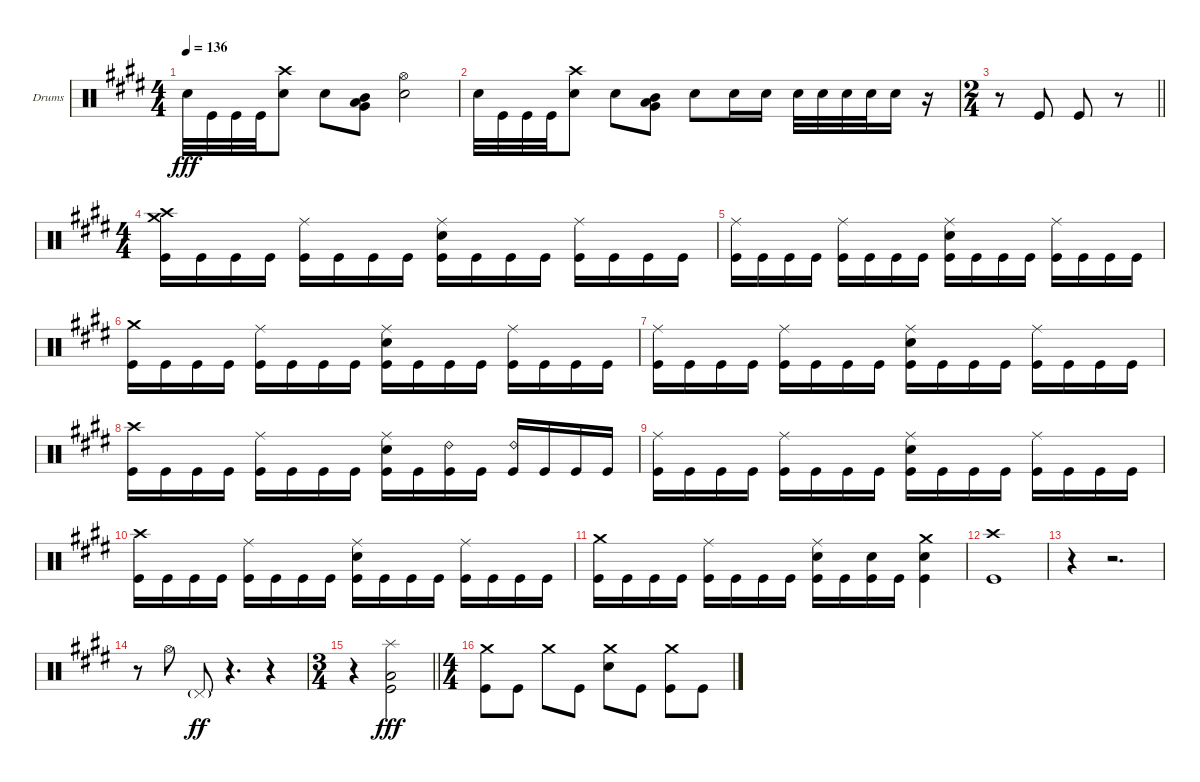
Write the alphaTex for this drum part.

\bracketExtendMode groupsimilarinstruments
\firstSystemTrackNameOrientation horizontal
\otherSystemsTrackNameOrientation horizontal
\track ("Drumkit" "Drums") {instrument percussion}
\staff {score}
\articulation defaults
\ts (4 4)
\tempo 136
\clef neutral
\ks e "Snare (hit) 2".32{dy fff} "Kick (hit)".32 "Kick (hit)".32 "Kick (hit)".32
("Crash high (hit)" "Snare (hit) 2").8 "Snare (hit) 2".8 ("Mid Tom (hit)" "Very Low Tom (hit)" "Low Tom (hit)").8 ("Hi-Hat (open)" "Snare (hit) 2").2 |
"Snare (hit) 2".32 "Kick (hit)".32 "Kick (hit)".32 "Kick (hit)".32 ("Crash high (hit)" "Snare (hit) 2").8 "Snare (hit) 2".8 ("Very Low Tom (hit)" "Mid Tom (hit)" "Low Tom (hit)").8 "Snare (hit) 2".8 "Snare (hit) 2".16 "Snare (hit) 2".16 "Snare (hit) 2".32 "Snare (hit) 2".32 "Snare (hit) 2".32 "Snare (hit) 2".32 "Snare (hit) 2".16 r.16 |
\ts (2 4)
\beaming (8 2 2)
\barLineRight lightlight
r.8 "Kick (hit)".8 "Kick (hit)".8 r.8 |
\ts (4 4)
\beaming (8 2 2 2 2)
("Crash high (hit)" "Crash medium (hit)" "Kick (hit)").16 "Kick (hit)".16 "Kick (hit)".16 "Kick (hit)".16 ("Ride (middle)" "Kick (hit)").16 "Kick (hit)".16 "Kick (hit)".16 "Kick (hit)".16 ("Ride (middle)" "Snare (hit) 2" "Kick (hit)").16 "Kick (hit)".16 "Kick (hit)".16 "Kick (hit)".16 ("Ride (middle)" "Kick (hit)").16 "Kick (hit)".16 "Kick (hit)".16 "Kick (hit)".16 |
("Ride (middle)" "Kick (hit)").16 "Kick (hit)".16 "Kick (hit)".16 "Kick (hit)".16 ("Ride (middle)" "Kick (hit)").16 "Kick (hit)".16 "Kick (hit)".16 "Kick (hit)".16 ("Ride (middle)" "Snare (hit) 2" "Kick (hit)").16 "Kick (hit)".16 "Kick (hit)".16 "Kick (hit)".16 ("Ride (middle)" "Kick (hit)").16 "Kick (hit)".16 "Kick (hit)".16 "Kick (hit)".16 |
("Crash medium (hit)" "Kick (hit)").16 "Kick (hit)".16 "Kick (hit)".16 "Kick (hit)".16 ("Ride (middle)" "Kick (hit)").16 "Kick (hit)".16 "Kick (hit)".16 "Kick (hit)".16 ("Ride (middle)" "Snare (hit) 2" "Kick (hit)").16 "Kick (hit)".16 "Kick (hit)".16 "Kick (hit)".16 ("Ride (middle)" "Kick (hit)").16 "Kick (hit)".16 "Kick (hit)".16 "Kick (hit)".16 |
("Ride (middle)" "Kick (hit)").16 "Kick (hit)".16 "Kick (hit)".16 "Kick (hit)".16 ("Ride (middle)" "Kick (hit)").16 "Kick (hit)".16 "Kick (hit)".16 "Kick (hit)".16 ("Ride (middle)" "Snare (hit) 2" "Kick (hit)").16 "Kick (hit)".16 "Kick (hit)".16 "Kick (hit)".16 ("Ride (middle)" "Kick (hit)").16 "Kick (hit)".16 "Kick (hit)".16 "Kick (hit)".16 |
("Crash high (hit)" "Kick (hit)").16 "Kick (hit)".16 "Kick (hit)".16 "Kick (hit)".16 ("Ride (middle)" "Kick (hit)").16 "Kick (hit)".16 "Kick (hit)".16 "Kick (hit)".16 ("Ride (middle)" "Snare (hit) 2" "Kick (hit)").16 "Kick (hit)".16 ("Ride (bell) 2" "Kick (hit)").16 "Kick (hit)".16 ("Ride (bell) 2" "Kick (hit)").16 "Kick (hit)".16 "Kick (hit)".16 "Kick (hit)".16 |
("Ride (middle)" "Kick (hit)").16 "Kick (hit)".16 "Kick (hit)".16 "Kick (hit)".16 ("Ride (middle)" "Kick (hit)").16 "Kick (hit)".16 "Kick (hit)".16 "Kick (hit)".16 ("Ride (middle)" "Snare (hit) 2" "Kick (hit)").16 "Kick (hit)".16 "Kick (hit)".16 "Kick (hit)".16 ("Ride (middle)" "Kick (hit)").16 "Kick (hit)".16 "Kick (hit)".16 "Kick (hit)".16 |
("Crash high (hit)" "Kick (hit)").16 "Kick (hit)".16 "Kick (hit)".16 "Kick (hit)".16 ("Ride (middle)" "Kick (hit)").16 "Kick (hit)".16 "Kick (hit)".16 "Kick (hit)".16 ("Ride (middle)" "Snare (hit) 2" "Kick (hit)").16 "Kick (hit)".16 "Kick (hit)".16 "Kick (hit)".16 ("Ride (middle)" "Kick (hit)").16 "Kick (hit)".16 "Kick (hit)".16 "Kick (hit)".16 |
("Crash medium (hit)" "Kick (hit)").16 "Kick (hit)".16 "Kick (hit)".16 "Kick (hit)".16 ("Ride (middle)" "Kick (hit)").16 "Kick (hit)".16 "Kick (hit)".16 "Kick (hit)".16 ("Ride (middle)" "Snare (hit) 2" "Kick (hit)").16 "Kick (hit)".16 ("Snare (hit) 2" "Kick (hit)").16 "Kick (hit)".16 ("Crash medium (hit)" "Snare (hit) 2" "Kick (hit)").4 |
("Crash high (hit)" "Kick (hit)").1 |
r.4 r.2{d} |
r.8 "Hi-Hat (open)".8 "Pedal Hi-Hat (hit)"{g}.8{dy ff} r.4{d} r.4 |
\ts (3 4)
\beaming (8 2 2 2)
\barLineRight lightlight
r.4 ("Splash (hit)" "Low Tom (hit)" "Kick (hit)").2{dy fff} |
\ts (4 4)
\beaming (8 2 2 2 2)
("Crash medium (hit)" "Kick (hit)").8 "Kick (hit)".8 "Crash medium (hit)".8 "Kick (hit)".8 ("Crash medium (hit)" "Snare (hit) 2").8 "Kick (hit)".8 ("Crash medium (hit)" "Kick (hit)").8 "Kick (hit)".8
